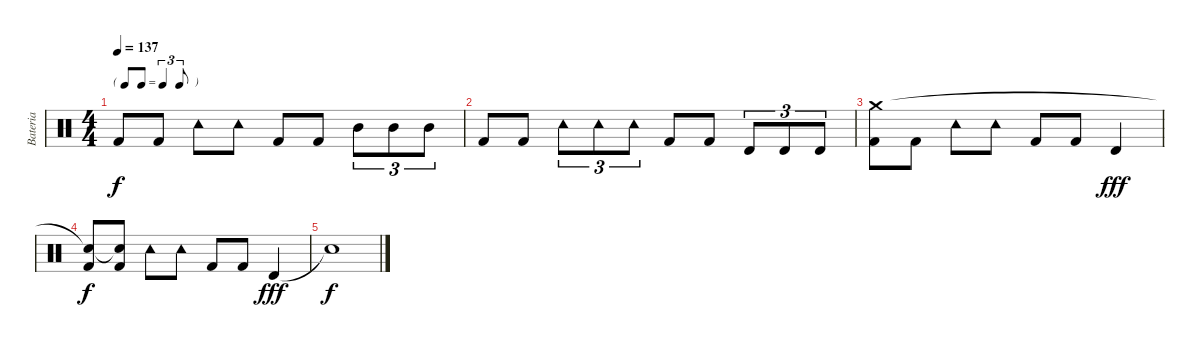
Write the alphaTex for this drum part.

\track ("Bateria" "Bateria") {instrument percussion}
\staff {score}
\articulation defaults
\ts (4 4)
\tf triplet8th
\tempo 137
\clef neutral
\ks c "Kick (hit) 2".8{dy f} "Kick (hit) 2".8 "Tambourine (hit)".8 "Tambourine (hit)".8 "Kick (hit) 2".8 "Kick (hit) 2".8 "Mid Tom (hit)".8{tu (3 2)} "Mid Tom (hit)".8{tu (3 2)} "Mid Tom (hit)".8{tu (3 2)}
|
"Kick (hit) 2".8 "Kick (hit) 2".8 "Tambourine (hit)".8{tu (3 2)} "Tambourine (hit)".8{tu (3 2)} "Tambourine (hit)".8{tu (3 2)} "Kick (hit) 2".8 "Kick (hit) 2".8 "Timbale high (hit)".8{tu (3 2)} "Timbale high (hit)".8{tu (3 2)} "Timbale high (hit)".8{tu (3 2)} |
("Kick (hit) 2" "Crash medium (hit)").8 "Kick (hit) 2".8 "Tambourine (hit)".8 "Tambourine (hit)".8 "Kick (hit) 2".8 "Kick (hit) 2".8 "Timbale high (hit)".4{dy fff} |
("Kick (hit) 2" "Snare (hit)"{t}).8{dy f} ("Kick (hit) 2" "Snare (hit)"{t}).8 "Tambourine (hit)".8 "Tambourine (hit)".8 "Kick (hit) 2".8 "Kick (hit) 2".8 "Timbale high (hit)".4{dy fff} |
"Snare (hit)"{t}.1{dy f}
